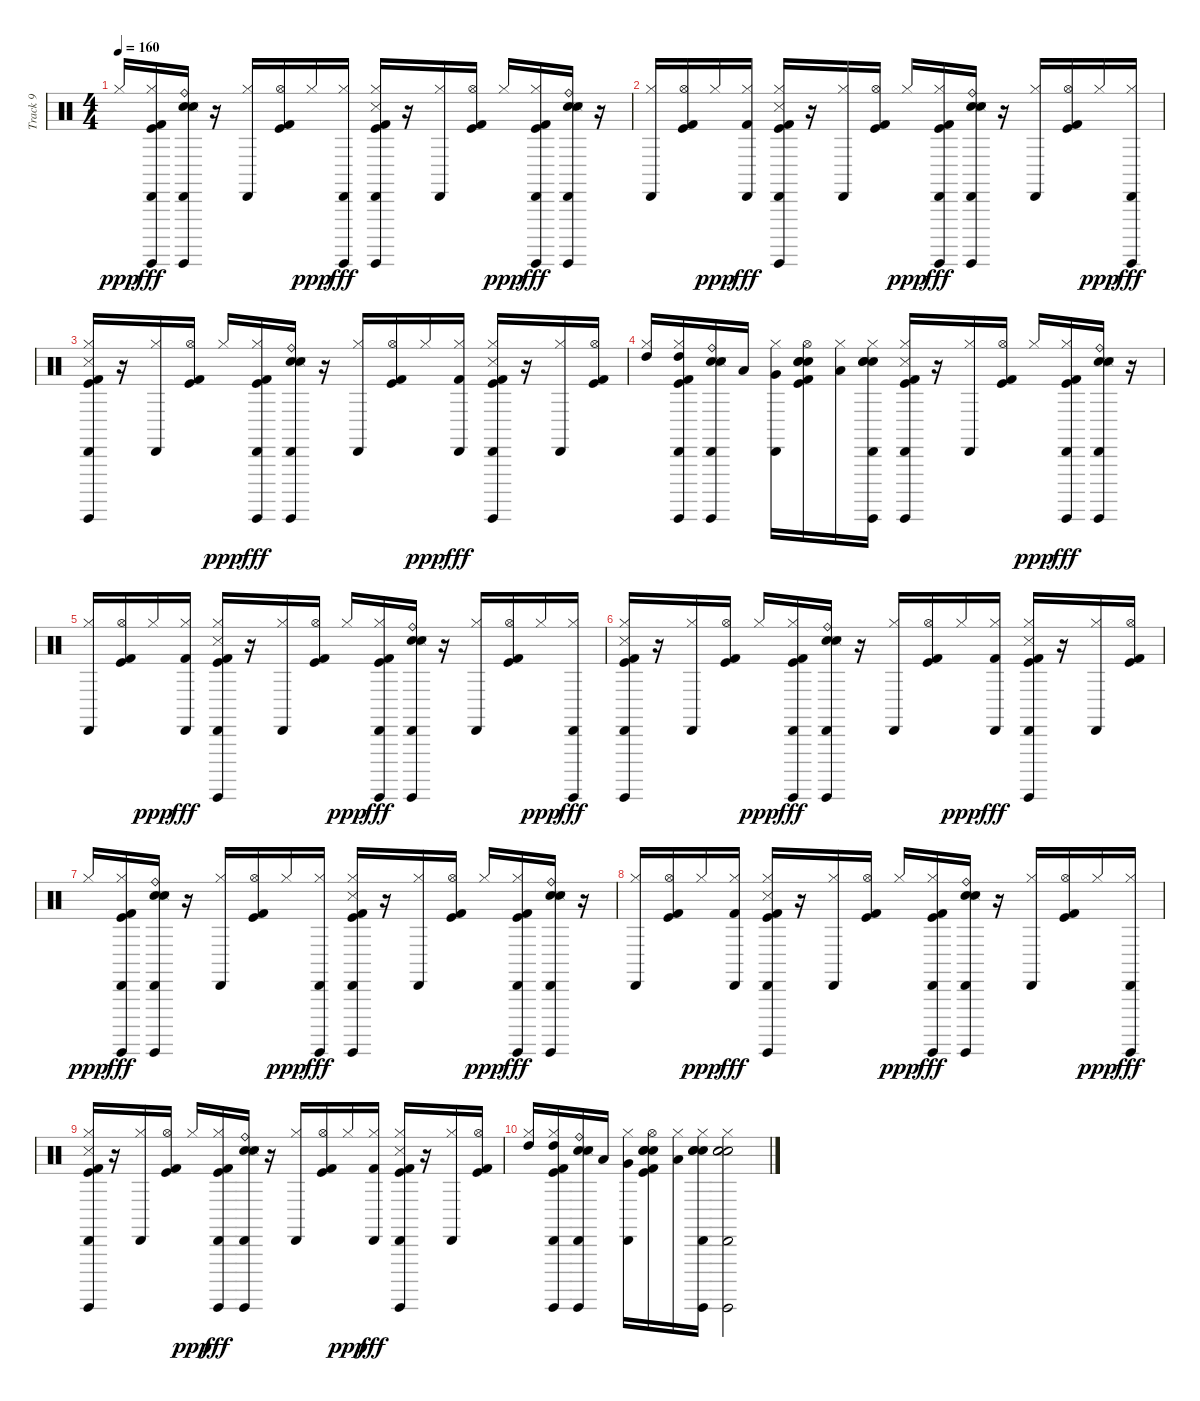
\track ("Track 9" "Track 9") {instrument percussion}
\staff {score}
\articulation defaults
\ts (4 4)
\tempo 160
\clef neutral
\ks c "Hi-Hat (closed)".16{dy ppp}
("Hi-Hat (closed)" "Cabasa (hit)" "Kick (hit) 2" "Kick (hit)" "Guiro (hit)").16{dy fff} ("Electric Snare (hit)" "Snare (hit) 2" "Cabasa (hit)" "Snare (side stick) 3" "Ride (bell)" "Guiro (hit)").16 r.16 ("Hi-Hat (closed)" "Cabasa (hit)").16 ("Hi-Hat (open)" "Kick (hit) 2" "Kick (hit)").16 "Hi-Hat (closed)".16{dy ppp} ("Hi-Hat (closed)" "Cabasa (hit)" "Guiro (hit)").16{dy fff} ("Hi-Hat (closed)" "Cabasa (hit)" "Snare (side stick) 3" "Kick (hit) 2" "Kick (hit)" "Guiro (hit)").16 r.16 ("Hi-Hat (closed)" "Cabasa (hit)").16 ("Hi-Hat (open)" "Kick (hit) 2" "Kick (hit)").16 "Hi-Hat (closed)".16{dy ppp} ("Hi-Hat (closed)" "Cabasa (hit)" "Kick (hit) 2" "Kick (hit)" "Guiro (hit)").16{dy fff} ("Electric Snare (hit)" "Snare (hit) 2" "Cabasa (hit)" "Snare (side stick) 3" "Ride (bell)" "Guiro (hit)").16 r.16 |
("Hi-Hat (closed)" "Cabasa (hit)").16 ("Hi-Hat (open)" "Kick (hit) 2" "Kick (hit)").16 "Hi-Hat (closed)".16{dy ppp} ("Hi-Hat (closed)" "Cabasa (hit)" "Kick (hit) 2").16{dy fff} ("Kick (hit)" "Kick (hit) 2" "Hi-Hat (closed)" "Cabasa (hit)" "Snare (side stick) 3" "Guiro (hit)").16 r.16 ("Hi-Hat (closed)" "Cabasa (hit)").16 ("Hi-Hat (open)" "Kick (hit) 2" "Kick (hit)").16 "Hi-Hat (closed)".16{dy ppp} ("Hi-Hat (closed)" "Cabasa (hit)" "Kick (hit) 2" "Kick (hit)" "Guiro (hit)").16{dy fff} ("Electric Snare (hit)" "Snare (hit) 2" "Cabasa (hit)" "Snare (side stick) 3" "Ride (bell)" "Guiro (hit)").16 r.16 ("Hi-Hat (closed)" "Cabasa (hit)").16 ("Hi-Hat (open)" "Kick (hit) 2" "Kick (hit)").16 "Hi-Hat (closed)".16{dy ppp} ("Hi-Hat (closed)" "Cabasa (hit)" "Guiro (hit)").16{dy fff} |
("Hi-Hat (closed)" "Cabasa (hit)" "Snare (side stick) 3" "Kick (hit) 2" "Kick (hit)" "Guiro (hit)").16 r.16 ("Hi-Hat (closed)" "Cabasa (hit)").16 ("Hi-Hat (open)" "Kick (hit) 2" "Kick (hit)").16 "Hi-Hat (closed)".16{dy ppp} ("Hi-Hat (closed)" "Cabasa (hit)" "Kick (hit) 2" "Kick (hit)" "Guiro (hit)").16{dy fff} ("Electric Snare (hit)" "Snare (hit) 2" "Cabasa (hit)" "Snare (side stick) 3" "Ride (bell)" "Guiro (hit)").16 r.16 ("Hi-Hat (closed)" "Cabasa (hit)").16 ("Hi-Hat (open)" "Kick (hit) 2" "Kick (hit)").16 "Hi-Hat (closed)".16{dy ppp} ("Hi-Hat (closed)" "Cabasa (hit)" "Kick (hit) 2").16{dy fff} ("Kick (hit)" "Kick (hit) 2" "Hi-Hat (closed)" "Cabasa (hit)" "Snare (side stick) 3" "Guiro (hit)").16 r.16 ("Hi-Hat (closed)" "Cabasa (hit)").16 ("Hi-Hat (open)" "Kick (hit) 2" "Kick (hit)").16 |
("Hi-Hat (closed)" "High Tom (hit)").16 ("Hi-Hat (closed)" "Cabasa (hit)" "Kick (hit) 2" "Kick (hit)" "Guiro (hit)" "High Tom (hit)").16 ("Electric Snare (hit)" "Snare (hit) 2" "Cabasa (hit)" "Snare (side stick) 3" "Ride (bell)" "Guiro (hit)").16 "Low Tom (hit)".16 ("Hi-Hat (closed)" "Cabasa (hit)" "Very Low Tom (hit)").16 ("Hi-Hat (open)" "Kick (hit) 2" "Kick (hit)" "Electric Snare (hit)" "Snare (hit) 2" "Hand Clap (hit)").16 ("Hi-Hat (closed)" "Low Floor Tom (hit)").16 ("Hi-Hat (closed)" "Cabasa (hit)" "Guiro (hit)" "Electric Snare (hit)" "Snare (hit) 2" "Hand Clap (hit)").16 ("Hi-Hat (closed)" "Cabasa (hit)" "Snare (side stick) 3" "Kick (hit) 2" "Kick (hit)" "Guiro (hit)").16 r.16 ("Hi-Hat (closed)" "Cabasa (hit)").16 ("Hi-Hat (open)" "Kick (hit) 2" "Kick (hit)").16 "Hi-Hat (closed)".16{dy ppp} ("Hi-Hat (closed)" "Cabasa (hit)" "Kick (hit) 2" "Kick (hit)" "Guiro (hit)").16{dy fff} ("Electric Snare (hit)" "Snare (hit) 2" "Cabasa (hit)" "Snare (side stick) 3" "Ride (bell)" "Guiro (hit)").16 r.16 |
("Hi-Hat (closed)" "Cabasa (hit)").16 ("Hi-Hat (open)" "Kick (hit) 2" "Kick (hit)").16 "Hi-Hat (closed)".16{dy ppp} ("Hi-Hat (closed)" "Cabasa (hit)" "Kick (hit) 2").16{dy fff} ("Kick (hit)" "Kick (hit) 2" "Hi-Hat (closed)" "Cabasa (hit)" "Snare (side stick) 3" "Guiro (hit)").16 r.16 ("Hi-Hat (closed)" "Cabasa (hit)").16 ("Hi-Hat (open)" "Kick (hit) 2" "Kick (hit)").16 "Hi-Hat (closed)".16{dy ppp} ("Hi-Hat (closed)" "Cabasa (hit)" "Kick (hit) 2" "Kick (hit)" "Guiro (hit)").16{dy fff} ("Electric Snare (hit)" "Snare (hit) 2" "Cabasa (hit)" "Snare (side stick) 3" "Ride (bell)" "Guiro (hit)").16 r.16 ("Hi-Hat (closed)" "Cabasa (hit)").16 ("Hi-Hat (open)" "Kick (hit) 2" "Kick (hit)").16 "Hi-Hat (closed)".16{dy ppp} ("Hi-Hat (closed)" "Cabasa (hit)" "Guiro (hit)").16{dy fff} |
("Hi-Hat (closed)" "Cabasa (hit)" "Snare (side stick) 3" "Kick (hit) 2" "Kick (hit)" "Guiro (hit)").16 r.16 ("Hi-Hat (closed)" "Cabasa (hit)").16 ("Hi-Hat (open)" "Kick (hit) 2" "Kick (hit)").16 "Hi-Hat (closed)".16{dy ppp} ("Hi-Hat (closed)" "Cabasa (hit)" "Kick (hit) 2" "Kick (hit)" "Guiro (hit)").16{dy fff} ("Electric Snare (hit)" "Snare (hit) 2" "Cabasa (hit)" "Snare (side stick) 3" "Ride (bell)" "Guiro (hit)").16 r.16 ("Hi-Hat (closed)" "Cabasa (hit)").16 ("Hi-Hat (open)" "Kick (hit) 2" "Kick (hit)").16 "Hi-Hat (closed)".16{dy ppp} ("Hi-Hat (closed)" "Cabasa (hit)" "Kick (hit) 2").16{dy fff} ("Kick (hit)" "Kick (hit) 2" "Hi-Hat (closed)" "Cabasa (hit)" "Snare (side stick) 3" "Guiro (hit)").16 r.16 ("Hi-Hat (closed)" "Cabasa (hit)").16 ("Hi-Hat (open)" "Kick (hit) 2" "Kick (hit)").16 |
"Hi-Hat (closed)".16{dy ppp} ("Hi-Hat (closed)" "Cabasa (hit)" "Kick (hit) 2" "Kick (hit)" "Guiro (hit)").16{dy fff} ("Electric Snare (hit)" "Snare (hit) 2" "Cabasa (hit)" "Snare (side stick) 3" "Ride (bell)" "Guiro (hit)").16 r.16 ("Hi-Hat (closed)" "Cabasa (hit)").16 ("Hi-Hat (open)" "Kick (hit) 2" "Kick (hit)").16 "Hi-Hat (closed)".16{dy ppp} ("Hi-Hat (closed)" "Cabasa (hit)" "Guiro (hit)").16{dy fff} ("Hi-Hat (closed)" "Cabasa (hit)" "Snare (side stick) 3" "Kick (hit) 2" "Kick (hit)" "Guiro (hit)").16 r.16 ("Hi-Hat (closed)" "Cabasa (hit)").16 ("Hi-Hat (open)" "Kick (hit) 2" "Kick (hit)").16 "Hi-Hat (closed)".16{dy ppp} ("Hi-Hat (closed)" "Cabasa (hit)" "Kick (hit) 2" "Kick (hit)" "Guiro (hit)").16{dy fff} ("Electric Snare (hit)" "Snare (hit) 2" "Cabasa (hit)" "Snare (side stick) 3" "Ride (bell)" "Guiro (hit)").16 r.16 |
("Hi-Hat (closed)" "Cabasa (hit)").16 ("Hi-Hat (open)" "Kick (hit) 2" "Kick (hit)").16 "Hi-Hat (closed)".16{dy ppp} ("Hi-Hat (closed)" "Cabasa (hit)" "Kick (hit) 2").16{dy fff} ("Kick (hit)" "Kick (hit) 2" "Hi-Hat (closed)" "Cabasa (hit)" "Snare (side stick) 3" "Guiro (hit)").16 r.16 ("Hi-Hat (closed)" "Cabasa (hit)").16 ("Hi-Hat (open)" "Kick (hit) 2" "Kick (hit)").16 "Hi-Hat (closed)".16{dy ppp} ("Hi-Hat (closed)" "Cabasa (hit)" "Kick (hit) 2" "Kick (hit)" "Guiro (hit)").16{dy fff} ("Electric Snare (hit)" "Snare (hit) 2" "Cabasa (hit)" "Snare (side stick) 3" "Ride (bell)" "Guiro (hit)").16 r.16 ("Hi-Hat (closed)" "Cabasa (hit)").16 ("Hi-Hat (open)" "Kick (hit) 2" "Kick (hit)").16 "Hi-Hat (closed)".16{dy ppp} ("Hi-Hat (closed)" "Cabasa (hit)" "Guiro (hit)").16{dy fff} |
("Hi-Hat (closed)" "Cabasa (hit)" "Snare (side stick) 3" "Kick (hit) 2" "Kick (hit)" "Guiro (hit)").16 r.16 ("Hi-Hat (closed)" "Cabasa (hit)").16 ("Hi-Hat (open)" "Kick (hit) 2" "Kick (hit)").16 "Hi-Hat (closed)".16{dy ppp} ("Hi-Hat (closed)" "Cabasa (hit)" "Kick (hit) 2" "Kick (hit)" "Guiro (hit)").16{dy fff} ("Electric Snare (hit)" "Snare (hit) 2" "Cabasa (hit)" "Snare (side stick) 3" "Ride (bell)" "Guiro (hit)").16 r.16 ("Hi-Hat (closed)" "Cabasa (hit)").16 ("Hi-Hat (open)" "Kick (hit) 2" "Kick (hit)").16 "Hi-Hat (closed)".16{dy ppp} ("Hi-Hat (closed)" "Cabasa (hit)" "Kick (hit) 2").16{dy fff} ("Kick (hit)" "Kick (hit) 2" "Hi-Hat (closed)" "Cabasa (hit)" "Snare (side stick) 3" "Guiro (hit)").16 r.16 ("Hi-Hat (closed)" "Cabasa (hit)").16 ("Hi-Hat (open)" "Kick (hit) 2" "Kick (hit)").16 |
("Hi-Hat (closed)" "High Tom (hit)").16 ("Hi-Hat (closed)" "Cabasa (hit)" "Kick (hit) 2" "Kick (hit)" "Guiro (hit)" "High Tom (hit)").16 ("Electric Snare (hit)" "Snare (hit) 2" "Cabasa (hit)" "Snare (side stick) 3" "Ride (bell)" "Guiro (hit)").16 "Low Tom (hit)".16 ("Hi-Hat (closed)" "Cabasa (hit)" "Very Low Tom (hit)").16 ("Hi-Hat (open)" "Kick (hit) 2" "Kick (hit)" "Electric Snare (hit)" "Snare (hit) 2" "Hand Clap (hit)").16 ("Hi-Hat (closed)" "Low Floor Tom (hit)").16 ("Hi-Hat (closed)" "Cabasa (hit)" "Guiro (hit)" "Electric Snare (hit)" "Snare (hit) 2" "Hand Clap (hit)").16 ("Hi-Hat (closed)" "Cabasa (hit)" "Guiro (hit)" "Snare (hit)" "Snare (hit) 2" "Hand Clap (hit)").2
